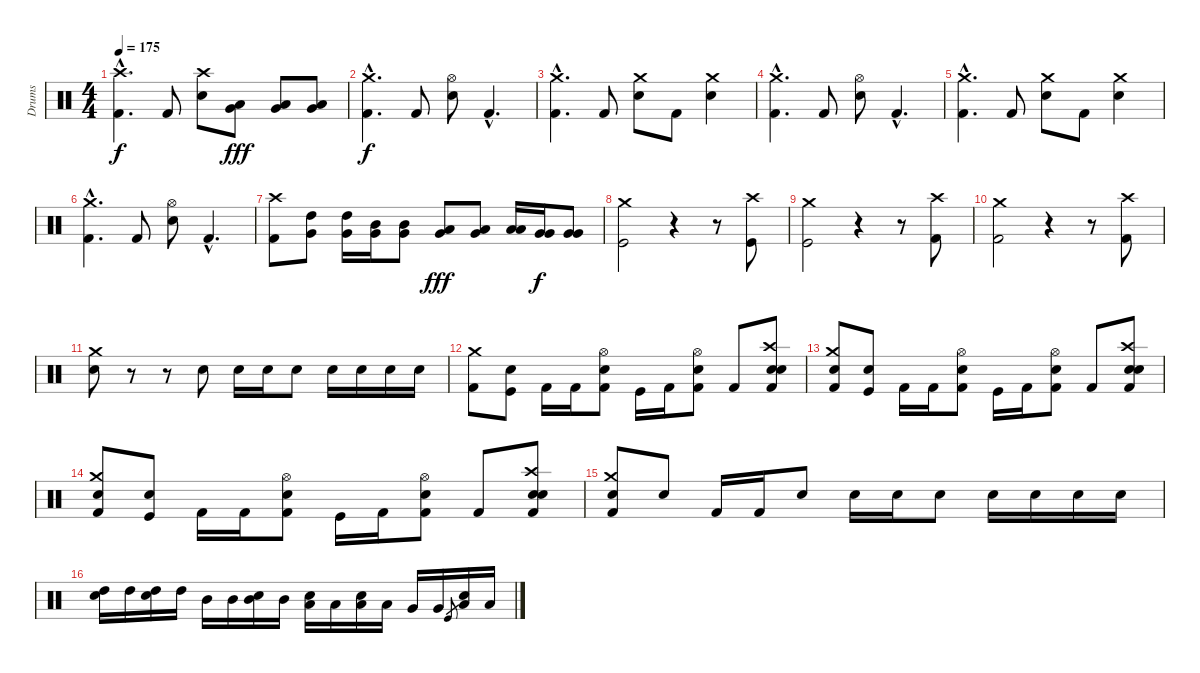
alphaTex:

\track ("Drums" "Drums") {instrument percussion}
\staff {score}
\articulation defaults
\ts (4 4)
\tempo 175
\clef neutral
\ks c
("Kick (hit) 2"{hac} "Crash high (hit)"{hac}).4{d dy f} "Kick (hit) 2".8 ("Electric Snare (hit)" "Crash high (hit)").8 ("Low Tom (hit)" "Very Low Tom (hit)").8{dy fff} ("Low Tom (hit)" "Very Low Tom (hit)").8 ("Low Tom (hit)" "Very Low Tom (hit)").8 |
("Kick (hit) 2"{hac} "Crash medium (hit)"{hac}).4{d dy f} "Kick (hit) 2".8 ("Electric Snare (hit)" "Hi-Hat (open)").8 "Kick (hit) 2"{hac}.4{d} |
("Kick (hit) 2"{hac} "Crash medium (hit)"{hac}).4{d} "Kick (hit) 2".8 ("Electric Snare (hit)" "Crash medium (hit)").8 "Kick (hit) 2".8 ("Electric Snare (hit)" "Crash medium (hit)").4 |
("Kick (hit) 2"{hac} "Crash medium (hit)"{hac}).4{d} "Kick (hit) 2".8 ("Electric Snare (hit)" "Hi-Hat (open)").8 "Kick (hit) 2"{hac}.4{d} |
("Kick (hit) 2"{hac} "Crash medium (hit)"{hac}).4{d} "Kick (hit) 2".8 ("Electric Snare (hit)" "Crash medium (hit)").8 "Kick (hit) 2".8 ("Electric Snare (hit)" "Crash medium (hit)").4 |
("Kick (hit) 2"{hac} "Crash medium (hit)"{hac}).4{d} "Kick (hit) 2".8 ("Electric Snare (hit)" "Hi-Hat (open)").8 "Kick (hit) 2"{hac}.4{d} |
("Kick (hit) 2" "Crash high (hit)").8 ("High Tom (hit)" "Very Low Tom (hit)").8 ("High Tom (hit)" "Very Low Tom (hit)").16 ("Mid Tom (hit)" "Very Low Tom (hit)").16 ("Mid Tom (hit)" "Very Low Tom (hit)").8 ("Low Tom (hit)" "Very Low Tom (hit)").8{dy fff} ("Low Tom (hit)" "Very Low Tom (hit)").8 ("Low Tom (hit)" "Low Tom (hit)").16 ("Very Low Tom (hit)" "Very Low Tom (hit)").16{dy f} ("Very Low Tom (hit)" "Very Low Tom (hit)").8 |
("Crash medium (hit)" "Kick (hit)").2 r.4 r.8 ("Crash high (hit)" "Kick (hit)").8 |
("Crash medium (hit)" "Kick (hit)").2 r.4 r.8 ("Crash high (hit)" "Kick (hit) 2").8 |
("Crash medium (hit)" "Kick (hit) 2").2 r.4 r.8 ("Crash high (hit)" "Kick (hit) 2").8 |
("Crash medium (hit)" "Electric Snare (hit)").8 r.8 r.8 "Electric Snare (hit)".8 "Electric Snare (hit)".16 "Electric Snare (hit)".16 "Electric Snare (hit)".8 "Electric Snare (hit)".16 "Electric Snare (hit)".16 "Electric Snare (hit)".16 "Electric Snare (hit)".16 |
("Crash medium (hit)" "Kick (hit) 2").8 ("Electric Snare (hit)" "Kick (hit)").8 "Kick (hit) 2".16 "Kick (hit) 2".16 ("Hi-Hat (open)" "Electric Snare (hit)" "Kick (hit) 2").8 "Kick (hit)".16 "Kick (hit) 2".16 ("Hi-Hat (open)" "Electric Snare (hit)" "Kick (hit) 2").8 "Kick (hit) 2".8 ("Crash high (hit)" "Electric Snare (hit)" "Kick (hit) 2" "Snare (hit) 2").8 |
("Crash medium (hit)" "Kick (hit) 2" "Snare (hit) 2").8 ("Electric Snare (hit)" "Kick (hit)").8 "Kick (hit) 2".16 "Kick (hit) 2".16 ("Hi-Hat (open)" "Electric Snare (hit)" "Kick (hit) 2").8 "Kick (hit)".16 "Kick (hit) 2".16 ("Hi-Hat (open)" "Electric Snare (hit)" "Kick (hit) 2").8 "Kick (hit) 2".8 ("Crash high (hit)" "Electric Snare (hit)" "Kick (hit) 2" "Snare (hit) 2").8 |
("Crash medium (hit)" "Kick (hit) 2" "Snare (hit) 2").8 ("Electric Snare (hit)" "Kick (hit)").8 "Kick (hit) 2".16 "Kick (hit) 2".16 ("Hi-Hat (open)" "Electric Snare (hit)" "Kick (hit) 2").8 "Kick (hit)".16 "Kick (hit) 2".16 ("Hi-Hat (open)" "Electric Snare (hit)" "Kick (hit) 2").8 "Kick (hit) 2".8 ("Crash high (hit)" "Electric Snare (hit)" "Kick (hit) 2" "Snare (hit) 2").8 |
("Crash medium (hit)" "Kick (hit) 2" "Snare (hit) 2").8 "Electric Snare (hit)".8 "Kick (hit) 2".16 "Kick (hit) 2".16 "Electric Snare (hit)".8 "Electric Snare (hit)".16 "Electric Snare (hit)".16 "Electric Snare (hit)".8 "Electric Snare (hit)".16 "Electric Snare (hit)".16 "Electric Snare (hit)".16 "Electric Snare (hit)".16 |
("High Tom (hit)" "Snare (hit) 2").16 "High Tom (hit)".16 ("High Tom (hit)" "Snare (hit) 2").16 "High Tom (hit)".16 "Mid Tom (hit)".16 "Mid Tom (hit)".16 ("Mid Tom (hit)" "Snare (hit) 2").16 "Mid Tom (hit)".16 ("Low Tom (hit)" "Snare (hit) 2").16 "Low Tom (hit)".16 ("Low Tom (hit)" "Snare (hit) 2").16 "Low Tom (hit)".16 "Very Low Tom (hit)".16 "Very Low Tom (hit)".16 "Kick (hit)".8{gr} ("Low Floor Tom (hit)" "Snare (hit) 2").16 "Low Floor Tom (hit)".16
